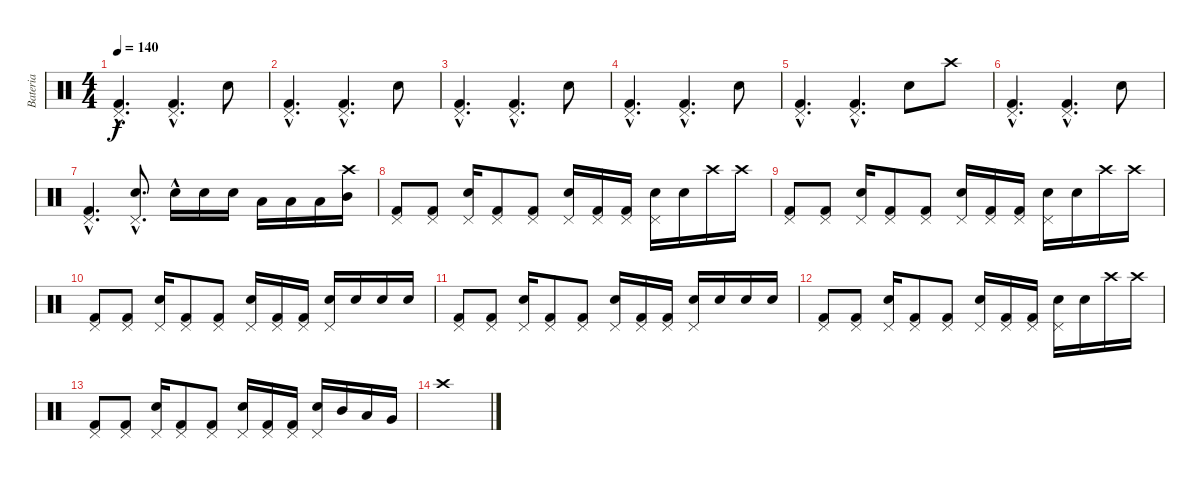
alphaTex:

\track ("Bateria" "Bateria") {instrument percussion}
\staff {score}
\articulation defaults
\ts (4 4)
\tempo 140
\clef neutral
\ks c
("Kick (hit) 2"{hac} "Pedal Hi-Hat (hit)"{hac}).4{d dy f} ("Kick (hit) 2"{hac} "Pedal Hi-Hat (hit)"{hac}).4{d} "Snare (hit) 2".8 |
("Kick (hit) 2"{hac} "Pedal Hi-Hat (hit)"{hac}).4{d} ("Kick (hit) 2"{hac} "Pedal Hi-Hat (hit)"{hac}).4{d} "Snare (hit) 2".8 |
("Kick (hit) 2"{hac} "Pedal Hi-Hat (hit)"{hac}).4{d} ("Kick (hit) 2"{hac} "Pedal Hi-Hat (hit)"{hac}).4{d} "Snare (hit) 2".8 |
("Kick (hit) 2"{hac} "Pedal Hi-Hat (hit)"{hac}).4{d} ("Kick (hit) 2"{hac} "Pedal Hi-Hat (hit)"{hac}).4{d} "Snare (hit) 2".8 |
("Kick (hit) 2"{hac} "Pedal Hi-Hat (hit)"{hac}).4{d} ("Kick (hit) 2"{hac} "Pedal Hi-Hat (hit)"{hac}).4{d} "Snare (hit) 2".8 "Crash high (hit)".8 |
("Kick (hit) 2"{hac} "Pedal Hi-Hat (hit)"{hac}).4{d} ("Kick (hit) 2"{hac} "Pedal Hi-Hat (hit)"{hac}).4{d} "Snare (hit) 2".8 |
("Kick (hit) 2"{hac} "Pedal Hi-Hat (hit)"{hac}).4{d} ("Snare (hit) 2"{hac} "Pedal Hi-Hat (hit)"{hac}).8{d} "Snare (hit) 2"{hac}.16 "Snare (hit) 2".16 "Snare (hit) 2".16 "Low Tom (hit)".16 "Low Tom (hit)".16 "Low Tom (hit)".16 ("Crash high (hit)" "Mid Tom (hit)").16 |
("Kick (hit) 2" "Pedal Hi-Hat (hit)").8 ("Kick (hit) 2" "Pedal Hi-Hat (hit)").8 ("Snare (hit) 2" "Pedal Hi-Hat (hit)").16 ("Kick (hit) 2" "Pedal Hi-Hat (hit)").8 ("Kick (hit) 2" "Pedal Hi-Hat (hit)").8 ("Snare (hit) 2" "Pedal Hi-Hat (hit)").16 ("Kick (hit) 2" "Pedal Hi-Hat (hit)").16 ("Kick (hit) 2" "Pedal Hi-Hat (hit)").16 ("Snare (hit) 2" "Pedal Hi-Hat (hit)").16 "Snare (hit) 2".16 "Crash high (hit)".16 "Crash high (hit)".16 |
("Kick (hit) 2" "Pedal Hi-Hat (hit)").8 ("Kick (hit) 2" "Pedal Hi-Hat (hit)").8 ("Snare (hit) 2" "Pedal Hi-Hat (hit)").16 ("Kick (hit) 2" "Pedal Hi-Hat (hit)").8 ("Kick (hit) 2" "Pedal Hi-Hat (hit)").8 ("Snare (hit) 2" "Pedal Hi-Hat (hit)").16 ("Kick (hit) 2" "Pedal Hi-Hat (hit)").16 ("Kick (hit) 2" "Pedal Hi-Hat (hit)").16 ("Snare (hit) 2" "Pedal Hi-Hat (hit)").16 "Snare (hit) 2".16 "Crash high (hit)".16 "Crash high (hit)".16 |
("Kick (hit) 2" "Pedal Hi-Hat (hit)").8 ("Kick (hit) 2" "Pedal Hi-Hat (hit)").8 ("Snare (hit) 2" "Pedal Hi-Hat (hit)").16 ("Kick (hit) 2" "Pedal Hi-Hat (hit)").8 ("Kick (hit) 2" "Pedal Hi-Hat (hit)").8 ("Snare (hit) 2" "Pedal Hi-Hat (hit)").16 ("Kick (hit) 2" "Pedal Hi-Hat (hit)").16 ("Kick (hit) 2" "Pedal Hi-Hat (hit)").16 ("Snare (hit) 2" "Pedal Hi-Hat (hit)").16 "Snare (hit) 2".16 "Snare (hit) 2".16 "Snare (hit) 2".16 |
("Kick (hit) 2" "Pedal Hi-Hat (hit)").8 ("Kick (hit) 2" "Pedal Hi-Hat (hit)").8 ("Snare (hit) 2" "Pedal Hi-Hat (hit)").16 ("Kick (hit) 2" "Pedal Hi-Hat (hit)").8 ("Kick (hit) 2" "Pedal Hi-Hat (hit)").8 ("Snare (hit) 2" "Pedal Hi-Hat (hit)").16 ("Kick (hit) 2" "Pedal Hi-Hat (hit)").16 ("Kick (hit) 2" "Pedal Hi-Hat (hit)").16 ("Snare (hit) 2" "Pedal Hi-Hat (hit)").16 "Snare (hit) 2".16 "Snare (hit) 2".16 "Snare (hit) 2".16 |
("Kick (hit) 2" "Pedal Hi-Hat (hit)").8 ("Kick (hit) 2" "Pedal Hi-Hat (hit)").8 ("Snare (hit) 2" "Pedal Hi-Hat (hit)").16 ("Kick (hit) 2" "Pedal Hi-Hat (hit)").8 ("Kick (hit) 2" "Pedal Hi-Hat (hit)").8 ("Snare (hit) 2" "Pedal Hi-Hat (hit)").16 ("Kick (hit) 2" "Pedal Hi-Hat (hit)").16 ("Kick (hit) 2" "Pedal Hi-Hat (hit)").16 ("Snare (hit) 2" "Pedal Hi-Hat (hit)").16 "Snare (hit) 2".16 "Crash high (hit)".16 "Crash high (hit)".16 |
("Kick (hit) 2" "Pedal Hi-Hat (hit)").8 ("Kick (hit) 2" "Pedal Hi-Hat (hit)").8 ("Snare (hit) 2" "Pedal Hi-Hat (hit)").16 ("Kick (hit) 2" "Pedal Hi-Hat (hit)").8 ("Kick (hit) 2" "Pedal Hi-Hat (hit)").8 ("Snare (hit) 2" "Pedal Hi-Hat (hit)").16 ("Kick (hit) 2" "Pedal Hi-Hat (hit)").16 ("Kick (hit) 2" "Pedal Hi-Hat (hit)").16 ("Snare (hit) 2" "Pedal Hi-Hat (hit)").16 "Mid Tom (hit)".16 "Low Tom (hit)".16 "Very Low Tom (hit)".16 |
"Crash high (hit)".1
